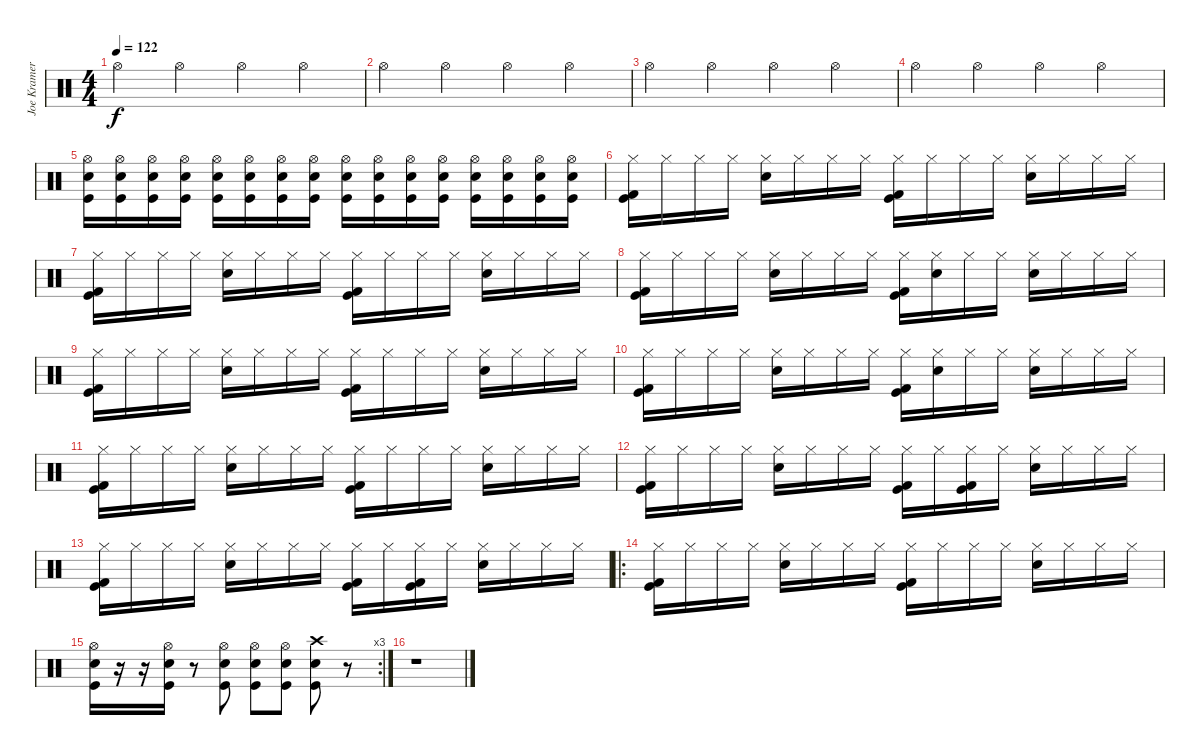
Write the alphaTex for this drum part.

\track ("Joe Kramer" "Joe Kramer") {instrument percussion}
\staff {score}
\articulation defaults
\ts (4 4)
\tempo 122
\clef neutral
\ks c "Hi-Hat (open)".4{dy f} "Hi-Hat (open)".4 "Hi-Hat (open)".4 "Hi-Hat (open)".4
|
"Hi-Hat (open)".4 "Hi-Hat (open)".4 "Hi-Hat (open)".4 "Hi-Hat (open)".4 |
"Hi-Hat (open)".4 "Hi-Hat (open)".4 "Hi-Hat (open)".4 "Hi-Hat (open)".4 |
"Hi-Hat (open)".4 "Hi-Hat (open)".4 "Hi-Hat (open)".4 "Hi-Hat (open)".4 |
("Kick (hit)" "Snare (hit) 2" "Hi-Hat (open)").16 ("Kick (hit)" "Snare (hit) 2" "Hi-Hat (open)").16 ("Kick (hit)" "Snare (hit) 2" "Hi-Hat (open)").16 ("Kick (hit)" "Snare (hit) 2" "Hi-Hat (open)").16 ("Kick (hit)" "Snare (hit) 2" "Hi-Hat (open)").16 ("Kick (hit)" "Snare (hit) 2" "Hi-Hat (open)").16 ("Kick (hit)" "Snare (hit) 2" "Hi-Hat (open)").16 ("Kick (hit)" "Snare (hit) 2" "Hi-Hat (open)").16 ("Kick (hit)" "Snare (hit) 2" "Hi-Hat (open)").16 ("Kick (hit)" "Snare (hit) 2" "Hi-Hat (open)").16 ("Kick (hit)" "Snare (hit) 2" "Hi-Hat (open)").16 ("Kick (hit)" "Snare (hit) 2" "Hi-Hat (open)").16 ("Kick (hit)" "Snare (hit) 2" "Hi-Hat (open)").16 ("Kick (hit)" "Snare (hit) 2" "Hi-Hat (open)").16 ("Kick (hit)" "Snare (hit) 2" "Hi-Hat (open)").16 ("Kick (hit)" "Snare (hit) 2" "Hi-Hat (open)").16 |
("Hi-Hat (closed)" "Kick (hit)" "Kick (hit) 2").16 "Hi-Hat (closed)".16 "Hi-Hat (closed)".16 "Hi-Hat (closed)".16 ("Hi-Hat (closed)" "Snare (hit) 2").16 "Hi-Hat (closed)".16 "Hi-Hat (closed)".16 "Hi-Hat (closed)".16 ("Hi-Hat (closed)" "Kick (hit)" "Kick (hit) 2").16 "Hi-Hat (closed)".16 "Hi-Hat (closed)".16 "Hi-Hat (closed)".16 ("Hi-Hat (closed)" "Snare (hit) 2").16 "Hi-Hat (closed)".16 "Hi-Hat (closed)".16 "Hi-Hat (closed)".16 |
("Hi-Hat (closed)" "Kick (hit)" "Kick (hit) 2").16 "Hi-Hat (closed)".16 "Hi-Hat (closed)".16 "Hi-Hat (closed)".16 ("Hi-Hat (closed)" "Snare (hit) 2").16 "Hi-Hat (closed)".16 "Hi-Hat (closed)".16 "Hi-Hat (closed)".16 ("Hi-Hat (closed)" "Kick (hit)" "Kick (hit) 2").16 "Hi-Hat (closed)".16 "Hi-Hat (closed)".16 "Hi-Hat (closed)".16 ("Hi-Hat (closed)" "Snare (hit) 2").16 "Hi-Hat (closed)".16 "Hi-Hat (closed)".16 "Hi-Hat (closed)".16 |
("Hi-Hat (closed)" "Kick (hit)" "Kick (hit) 2").16 "Hi-Hat (closed)".16 "Hi-Hat (closed)".16 "Hi-Hat (closed)".16 ("Hi-Hat (closed)" "Snare (hit) 2").16 "Hi-Hat (closed)".16 "Hi-Hat (closed)".16 "Hi-Hat (closed)".16 ("Hi-Hat (closed)" "Kick (hit)" "Kick (hit) 2").16 ("Hi-Hat (closed)" "Snare (hit) 2").16 "Hi-Hat (closed)".16 "Hi-Hat (closed)".16 ("Hi-Hat (closed)" "Snare (hit) 2").16 "Hi-Hat (closed)".16 "Hi-Hat (closed)".16 "Hi-Hat (closed)".16 |
("Hi-Hat (closed)" "Kick (hit)" "Kick (hit) 2").16 "Hi-Hat (closed)".16 "Hi-Hat (closed)".16 "Hi-Hat (closed)".16 ("Hi-Hat (closed)" "Snare (hit) 2").16 "Hi-Hat (closed)".16 "Hi-Hat (closed)".16 "Hi-Hat (closed)".16 ("Hi-Hat (closed)" "Kick (hit)" "Kick (hit) 2").16 "Hi-Hat (closed)".16 "Hi-Hat (closed)".16 "Hi-Hat (closed)".16 ("Hi-Hat (closed)" "Snare (hit) 2").16 "Hi-Hat (closed)".16 "Hi-Hat (closed)".16 "Hi-Hat (closed)".16 |
("Hi-Hat (closed)" "Kick (hit)" "Kick (hit) 2").16 "Hi-Hat (closed)".16 "Hi-Hat (closed)".16 "Hi-Hat (closed)".16 ("Hi-Hat (closed)" "Snare (hit) 2").16 "Hi-Hat (closed)".16 "Hi-Hat (closed)".16 "Hi-Hat (closed)".16 ("Hi-Hat (closed)" "Kick (hit)" "Kick (hit) 2").16 ("Hi-Hat (closed)" "Snare (hit) 2").16 "Hi-Hat (closed)".16 "Hi-Hat (closed)".16 ("Hi-Hat (closed)" "Snare (hit) 2").16 "Hi-Hat (closed)".16 "Hi-Hat (closed)".16 "Hi-Hat (closed)".16 |
("Hi-Hat (closed)" "Kick (hit)" "Kick (hit) 2").16 "Hi-Hat (closed)".16 "Hi-Hat (closed)".16 "Hi-Hat (closed)".16 ("Hi-Hat (closed)" "Snare (hit) 2").16 "Hi-Hat (closed)".16 "Hi-Hat (closed)".16 "Hi-Hat (closed)".16 ("Hi-Hat (closed)" "Kick (hit)" "Kick (hit) 2").16 "Hi-Hat (closed)".16 "Hi-Hat (closed)".16 "Hi-Hat (closed)".16 ("Hi-Hat (closed)" "Snare (hit) 2").16 "Hi-Hat (closed)".16 "Hi-Hat (closed)".16 "Hi-Hat (closed)".16 |
("Hi-Hat (closed)" "Kick (hit)" "Kick (hit) 2").16 "Hi-Hat (closed)".16 "Hi-Hat (closed)".16 "Hi-Hat (closed)".16 ("Hi-Hat (closed)" "Snare (hit) 2").16 "Hi-Hat (closed)".16 "Hi-Hat (closed)".16 "Hi-Hat (closed)".16 ("Hi-Hat (closed)" "Kick (hit)" "Kick (hit) 2").16 "Hi-Hat (closed)".16 ("Hi-Hat (closed)" "Kick (hit)" "Kick (hit) 2").16 "Hi-Hat (closed)".16 ("Hi-Hat (closed)" "Snare (hit) 2").16 "Hi-Hat (closed)".16 "Hi-Hat (closed)".16 "Hi-Hat (closed)".16 |
("Hi-Hat (closed)" "Kick (hit)" "Kick (hit) 2").16 "Hi-Hat (closed)".16 "Hi-Hat (closed)".16 "Hi-Hat (closed)".16 ("Hi-Hat (closed)" "Snare (hit) 2").16 "Hi-Hat (closed)".16 "Hi-Hat (closed)".16 "Hi-Hat (closed)".16 ("Hi-Hat (closed)" "Kick (hit)" "Kick (hit) 2").16 "Hi-Hat (closed)".16 ("Hi-Hat (closed)" "Kick (hit)" "Kick (hit) 2").16 "Hi-Hat (closed)".16 ("Hi-Hat (closed)" "Snare (hit) 2").16 "Hi-Hat (closed)".16 "Hi-Hat (closed)".16 "Hi-Hat (closed)".16 |
\ro
("Hi-Hat (closed)" "Kick (hit)" "Kick (hit) 2").16 "Hi-Hat (closed)".16 "Hi-Hat (closed)".16 "Hi-Hat (closed)".16 ("Hi-Hat (closed)" "Snare (hit) 2").16 "Hi-Hat (closed)".16 "Hi-Hat (closed)".16 "Hi-Hat (closed)".16 ("Hi-Hat (closed)" "Kick (hit)" "Kick (hit) 2").16 "Hi-Hat (closed)".16 "Hi-Hat (closed)".16 "Hi-Hat (closed)".16 ("Hi-Hat (closed)" "Snare (hit) 2").16 "Hi-Hat (closed)".16 "Hi-Hat (closed)".16 "Hi-Hat (closed)".16 |
\rc 3
("Kick (hit)" "Snare (hit) 2" "Hi-Hat (open)").16 r.16 r.16 ("Kick (hit)" "Snare (hit) 2" "Hi-Hat (open)").16 r.8 ("Kick (hit)" "Snare (hit) 2" "Hi-Hat (open)").8 ("Kick (hit)" "Snare (hit) 2" "Hi-Hat (open)").8 ("Kick (hit)" "Snare (hit) 2" "Hi-Hat (open)").8 ("Kick (hit)" "Snare (hit) 2" "Crash high (hit)").8 r.8 |
r.1
